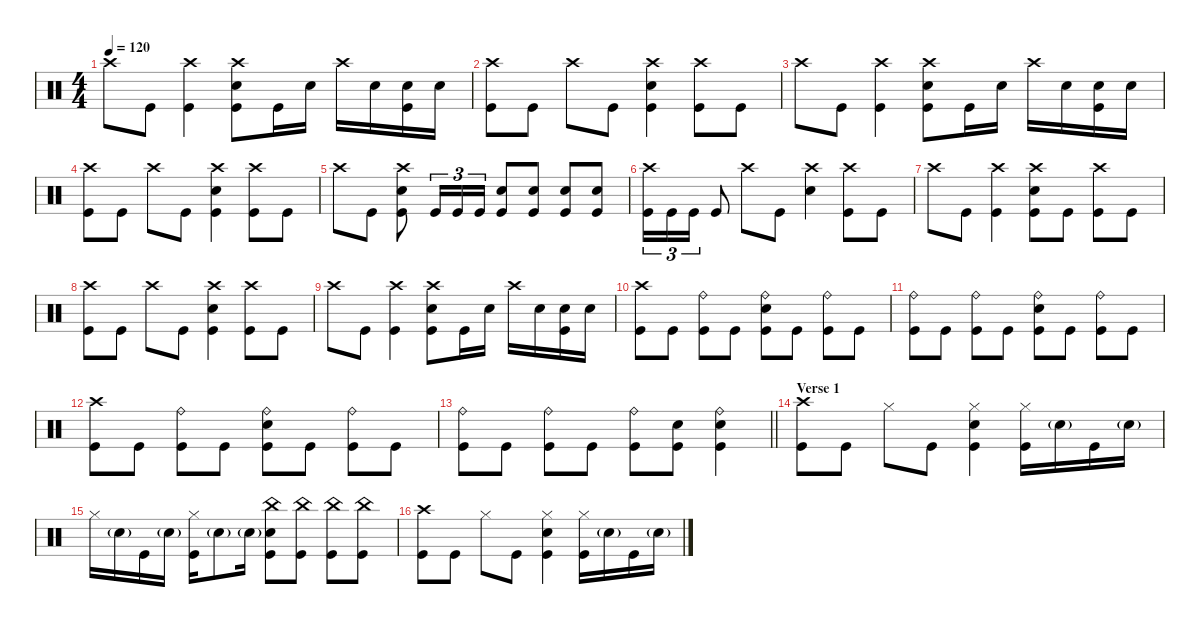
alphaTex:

\defaultSystemsLayout 4
\hideDynamics
\bracketExtendMode nobrackets
\singleTrackTrackNamePolicy hidden
\multiTrackTrackNamePolicy hidden
\firstSystemTrackNameMode fullname
\firstSystemTrackNameOrientation horizontal
\otherSystemsTrackNameOrientation horizontal
\track ("Drums" "drm.") {instrument percussion}
\staff {score}
\articulation defaults
\ts (4 4)
\tempo 120
\clef neutral
\ks c "Crash high (hit)".8{dy mf beam Down} "Kick (hit)".8{beam Down}
("Crash high (hit)" "Kick (hit)").4{beam Down} ("Snare (hit) 2" "Crash high (hit)" "Kick (hit)").8{beam Down} "Kick (hit)".16{beam Down} "Snare (hit) 2".16{beam Down} "Crash high (hit)".16{beam Down} "Snare (hit) 2".16{beam Down} ("Snare (hit) 2" "Kick (hit)").16{beam Down} "Snare (hit) 2".16{beam Down} |
("Kick (hit)" "Crash high (hit)").8{beam Down} "Kick (hit)".8{beam Down} "Crash high (hit)".8{beam Down} "Kick (hit)".8{beam Down} ("Kick (hit)" "Snare (hit) 2" "Crash high (hit)").4{beam Down} ("Kick (hit)" "Crash high (hit)").8{beam Down} "Kick (hit)".8{beam Down} |
"Crash high (hit)".8{beam Down} "Kick (hit)".8{beam Down} ("Kick (hit)" "Crash high (hit)").4{beam Down} ("Kick (hit)" "Snare (hit) 2" "Crash high (hit)").8{beam Down} "Kick (hit)".16{beam Down} "Snare (hit) 2".16{beam Down} "Crash high (hit)".16{beam Down} "Snare (hit) 2".16{beam Down} ("Snare (hit) 2" "Kick (hit)").16{beam Down} "Snare (hit) 2".16{beam Down} |
("Kick (hit)" "Crash high (hit)").8{beam Down} "Kick (hit)".8{beam Down} "Crash high (hit)".8{beam Down} "Kick (hit)".8{beam Down} ("Kick (hit)" "Snare (hit) 2" "Crash high (hit)").4{beam Down} ("Kick (hit)" "Crash high (hit)").8{beam Down} "Kick (hit)".8{beam Down} |
"Crash high (hit)".8{beam Down} "Kick (hit)".8{beam Down} ("Kick (hit)" "Snare (hit) 2" "Crash high (hit)").8{beam Down} "Kick (hit)".16{tu (3 2) beam Up} "Kick (hit)".16{tu (3 2) beam Up} "Kick (hit)".16{tu (3 2) beam Up} ("Snare (hit) 2" "Kick (hit)").8{beam Up} ("Snare (hit) 2" "Kick (hit)").8{beam Up} ("Snare (hit) 2" "Kick (hit)").8{beam Up} ("Snare (hit) 2" "Kick (hit)").8{beam Up} |
("Kick (hit)" "Crash high (hit)").16{tu (3 2) beam Down} "Kick (hit)".16{tu (3 2) beam Down} "Kick (hit)".16{tu (3 2) beam Down} "Kick (hit)".8{beam Up} "Crash high (hit)".8{beam Down} "Kick (hit)".8{beam Down} ("Snare (hit) 2" "Crash high (hit)").4{beam Down} ("Kick (hit)" "Crash high (hit)").8{beam Down} "Kick (hit)".8{beam Down} |
"Crash high (hit)".8{beam Down} "Kick (hit)".8{beam Down} ("Crash high (hit)" "Kick (hit)").4{beam Down} ("Snare (hit) 2" "Crash high (hit)" "Kick (hit)").8{beam Down} "Kick (hit)".8{beam Down} ("Kick (hit)" "Crash high (hit)").8{beam Down} "Kick (hit)".8{beam Down} |
("Kick (hit)" "Crash high (hit)").8{beam Down} "Kick (hit)".8{beam Down} "Crash high (hit)".8{beam Down} "Kick (hit)".8{beam Down} ("Kick (hit)" "Snare (hit) 2" "Crash high (hit)").4{beam Down} ("Kick (hit)" "Crash high (hit)").8{beam Down} "Kick (hit)".8{beam Down} |
"Crash high (hit)".8{beam Down} "Kick (hit)".8{beam Down} ("Kick (hit)" "Crash high (hit)").4{beam Down} ("Kick (hit)" "Snare (hit) 2" "Crash high (hit)").8{beam Down} "Kick (hit)".16{beam Down} "Snare (hit) 2".16{beam Down} "Crash high (hit)".16{beam Down} "Snare (hit) 2".16{beam Down} ("Snare (hit) 2" "Kick (hit)").16{beam Down} "Snare (hit) 2".16{beam Down} |
("Crash high (hit)" "Kick (hit)").8{beam Down} "Kick (hit)".8{beam Down} ("Ride (bell)" "Kick (hit)").8{beam Down} "Kick (hit)".8{beam Down} ("Snare (hit) 2" "Ride (bell)" "Kick (hit)").8{beam Down} "Kick (hit)".8{beam Down} ("Ride (bell)" "Kick (hit)").8{beam Down} "Kick (hit)".8{beam Down} |
("Kick (hit)" "Ride (bell)").8{beam Down} "Kick (hit)".8{beam Down} ("Kick (hit)" "Ride (bell)").8{beam Down} "Kick (hit)".8{beam Down} ("Kick (hit)" "Snare (hit) 2" "Ride (bell)").8{beam Down} "Kick (hit)".8{beam Down} ("Kick (hit)" "Ride (bell)").8{beam Down} "Kick (hit)".8{beam Down} |
("Kick (hit)" "Crash high (hit)").8{beam Down} "Kick (hit)".8{beam Down} ("Kick (hit)" "Ride (bell)").8{beam Down} "Kick (hit)".8{beam Down} ("Kick (hit)" "Snare (hit) 2" "Ride (bell)").8{beam Down} "Kick (hit)".8{beam Down} ("Kick (hit)" "Ride (bell)").8{beam Down} "Kick (hit)".8{beam Down} |
\barLineRight lightlight
("Ride (bell)" "Kick (hit)").8{beam Down} "Kick (hit)".8{beam Down} ("Ride (bell)" "Kick (hit)").8{beam Down} "Kick (hit)".8{beam Down} ("Ride (bell)" "Kick (hit)").8{beam Down} ("Snare (hit) 2" "Kick (hit)").8{beam Down} ("Snare (hit) 2" "Ride (bell)" "Kick (hit)").4{beam Down} |
\section ("" "Verse 1")
("Crash high (hit)" "Kick (hit)").8{beam Down} "Kick (hit)".8{beam Down} "Hi-Hat (closed)".8{beam Down} "Kick (hit)".8{beam Down} ("Snare (hit) 2" "Hi-Hat (closed)" "Kick (hit)").4{beam Down} ("Hi-Hat (closed)" "Kick (hit)").16{beam Down} "Snare (hit) 2"{g}.16{dy mp beam Down} "Kick (hit)".16{dy mf beam Down} "Snare (hit) 2"{g}.16{dy mp beam Down} |
"Hi-Hat (closed)".16{dy mf beam Down} "Snare (hit) 2"{g}.16{dy mp beam Down} "Kick (hit)".16{dy mf beam Down} "Snare (hit) 2"{g}.16{dy mp beam Down} ("Hi-Hat (closed)" "Kick (hit)").16{dy mf beam Down} "Snare (hit) 2"{g}.8{dy mp beam Down} "Snare (hit) 2"{g}.16{beam Down} ("Kick (hit)" "Snare (hit) 2" "China (hit)").8{dy mf beam Down} ("Kick (hit)" "China (hit)").8{beam Down} ("Kick (hit)" "China (hit)").8{beam Down} ("Kick (hit)" "China (hit)").8{beam Down} |
("Kick (hit)" "Crash high (hit)").8{beam Down} "Kick (hit)".8{beam Down} "Hi-Hat (closed)".8{beam Down} "Kick (hit)".8{beam Down} ("Kick (hit)" "Snare (hit) 2" "Hi-Hat (closed)").4{beam Down} ("Kick (hit)" "Hi-Hat (closed)").16{beam Down} "Snare (hit) 2"{g}.16{dy mp beam Down} "Kick (hit)".16{dy mf beam Down} "Snare (hit) 2"{g}.16{dy mp beam Down}
